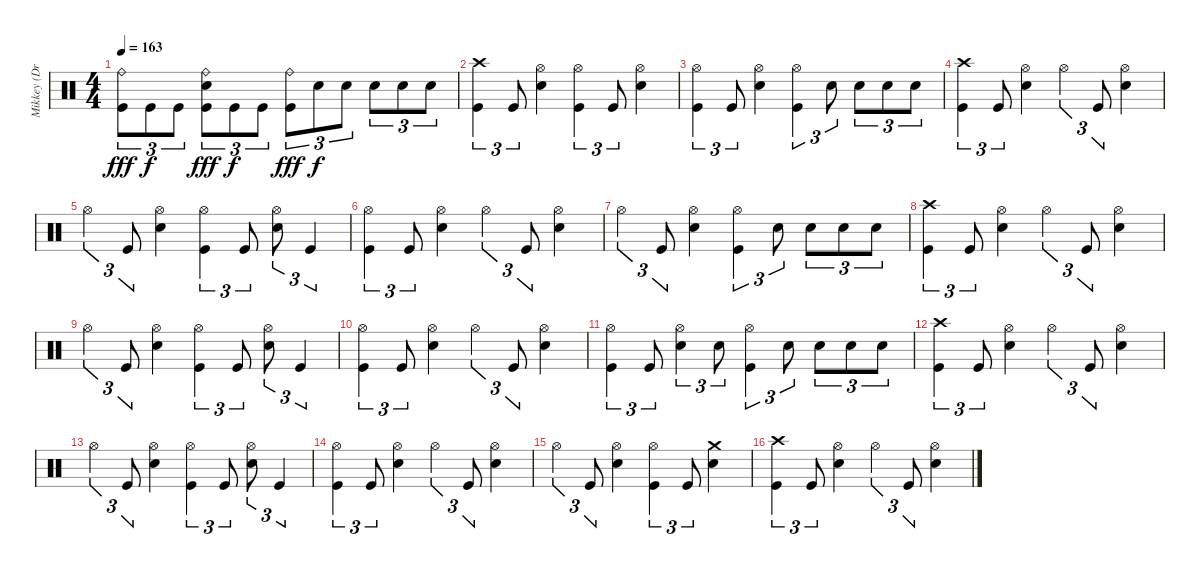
\track ("Mikkey (Drums)" "Mikkey (Dr") {instrument percussion}
\staff {score}
\articulation defaults
\ts (4 4)
\tempo 163
\clef neutral
\ks c
("Ride (bell)" "Kick (hit)").8{tu (3 2) dy fff} "Kick (hit)".8{tu (3 2) dy f} "Kick (hit)".8{tu (3 2)} ("Ride (bell)" "Electric Snare (hit)" "Kick (hit)").8{tu (3 2) dy fff} "Kick (hit)".8{tu (3 2) dy f} "Kick (hit)".8{tu (3 2)} ("Ride (bell)" "Kick (hit)").8{tu (3 2) dy fff} "Electric Snare (hit)".8{tu (3 2) dy f} "Electric Snare (hit)".8{tu (3 2)} "Electric Snare (hit)".8{tu (3 2)} "Electric Snare (hit)".8{tu (3 2)} "Electric Snare (hit)".8{tu (3 2)} |
("Crash high (hit)" "Kick (hit)").4{tu (3 2)} "Kick (hit)".8{tu (3 2)} ("Hi-Hat (open)" "Electric Snare (hit)").4 ("Hi-Hat (open)" "Kick (hit)").4{tu (3 2)} "Kick (hit)".8{tu (3 2)} ("Hi-Hat (open)" "Electric Snare (hit)").4 |
("Hi-Hat (open)" "Kick (hit)").4{tu (3 2)} "Kick (hit)".8{tu (3 2)} ("Hi-Hat (open)" "Electric Snare (hit)").4 ("Hi-Hat (open)" "Kick (hit)").4{tu (3 2)} "Electric Snare (hit)".8{tu (3 2)} "Electric Snare (hit)".8{tu (3 2)} "Electric Snare (hit)".8{tu (3 2)} "Electric Snare (hit)".8{tu (3 2)} |
("Crash high (hit)" "Kick (hit)").4{tu (3 2)} "Kick (hit)".8{tu (3 2)} ("Hi-Hat (open)" "Electric Snare (hit)").4 "Hi-Hat (open)".4{tu (3 2)} "Kick (hit)".8{tu (3 2)} ("Hi-Hat (open)" "Electric Snare (hit)").4 |
"Hi-Hat (open)".4{tu (3 2)} "Kick (hit)".8{tu (3 2)} ("Hi-Hat (open)" "Electric Snare (hit)").4 ("Hi-Hat (open)" "Kick (hit)").4{tu (3 2)} "Kick (hit)".8{tu (3 2)} ("Hi-Hat (open)" "Electric Snare (hit)").8{tu (3 2)} "Kick (hit)".4{tu (3 2)} |
("Hi-Hat (open)" "Kick (hit)").4{tu (3 2)} "Kick (hit)".8{tu (3 2)} ("Hi-Hat (open)" "Electric Snare (hit)").4 "Hi-Hat (open)".4{tu (3 2)} "Kick (hit)".8{tu (3 2)} ("Hi-Hat (open)" "Electric Snare (hit)").4 |
"Hi-Hat (open)".4{tu (3 2)} "Kick (hit)".8{tu (3 2)} ("Hi-Hat (open)" "Electric Snare (hit)").4 ("Hi-Hat (open)" "Kick (hit)").4{tu (3 2)} "Electric Snare (hit)".8{tu (3 2)} "Electric Snare (hit)".8{tu (3 2)} "Electric Snare (hit)".8{tu (3 2)} "Electric Snare (hit)".8{tu (3 2)} |
("Crash high (hit)" "Kick (hit)").4{tu (3 2)} "Kick (hit)".8{tu (3 2)} ("Hi-Hat (open)" "Electric Snare (hit)").4 "Hi-Hat (open)".4{tu (3 2)} "Kick (hit)".8{tu (3 2)} ("Hi-Hat (open)" "Electric Snare (hit)").4 |
"Hi-Hat (open)".4{tu (3 2)} "Kick (hit)".8{tu (3 2)} ("Hi-Hat (open)" "Electric Snare (hit)").4 ("Hi-Hat (open)" "Kick (hit)").4{tu (3 2)} "Kick (hit)".8{tu (3 2)} ("Hi-Hat (open)" "Electric Snare (hit)").8{tu (3 2)} "Kick (hit)".4{tu (3 2)} |
("Hi-Hat (open)" "Kick (hit)").4{tu (3 2)} "Kick (hit)".8{tu (3 2)} ("Hi-Hat (open)" "Electric Snare (hit)").4 "Hi-Hat (open)".4{tu (3 2)} "Kick (hit)".8{tu (3 2)} ("Hi-Hat (open)" "Electric Snare (hit)").4 |
("Hi-Hat (open)" "Kick (hit)").4{tu (3 2)} "Kick (hit)".8{tu (3 2)} ("Hi-Hat (open)" "Electric Snare (hit)").4{tu (3 2)} "Electric Snare (hit)".8{tu (3 2)} ("Hi-Hat (open)" "Kick (hit)").4{tu (3 2)} "Electric Snare (hit)".8{tu (3 2)} "Electric Snare (hit)".8{tu (3 2)} "Electric Snare (hit)".8{tu (3 2)} "Electric Snare (hit)".8{tu (3 2)} |
("Crash high (hit)" "Kick (hit)").4{tu (3 2)} "Kick (hit)".8{tu (3 2)} ("Hi-Hat (open)" "Electric Snare (hit)").4 "Hi-Hat (open)".4{tu (3 2)} "Kick (hit)".8{tu (3 2)} ("Hi-Hat (open)" "Electric Snare (hit)").4 |
"Hi-Hat (open)".4{tu (3 2)} "Kick (hit)".8{tu (3 2)} ("Hi-Hat (open)" "Electric Snare (hit)").4 ("Hi-Hat (open)" "Kick (hit)").4{tu (3 2)} "Kick (hit)".8{tu (3 2)} ("Hi-Hat (open)" "Electric Snare (hit)").8{tu (3 2)} "Kick (hit)".4{tu (3 2)} |
("Hi-Hat (open)" "Kick (hit)").4{tu (3 2)} "Kick (hit)".8{tu (3 2)} ("Hi-Hat (open)" "Electric Snare (hit)").4 "Hi-Hat (open)".4{tu (3 2)} "Kick (hit)".8{tu (3 2)} ("Hi-Hat (open)" "Electric Snare (hit)").4 |
"Hi-Hat (open)".4{tu (3 2)} "Kick (hit)".8{tu (3 2)} ("Hi-Hat (open)" "Electric Snare (hit)").4 ("Hi-Hat (open)" "Kick (hit)").4{tu (3 2)} "Kick (hit)".8{tu (3 2)} ("Crash medium (hit)" "Electric Snare (hit)").4 |
("Crash high (hit)" "Kick (hit)").4{tu (3 2)} "Kick (hit)".8{tu (3 2)} ("Hi-Hat (open)" "Electric Snare (hit)").4 "Hi-Hat (open)".4{tu (3 2)} "Kick (hit)".8{tu (3 2)} ("Hi-Hat (open)" "Electric Snare (hit)").4
